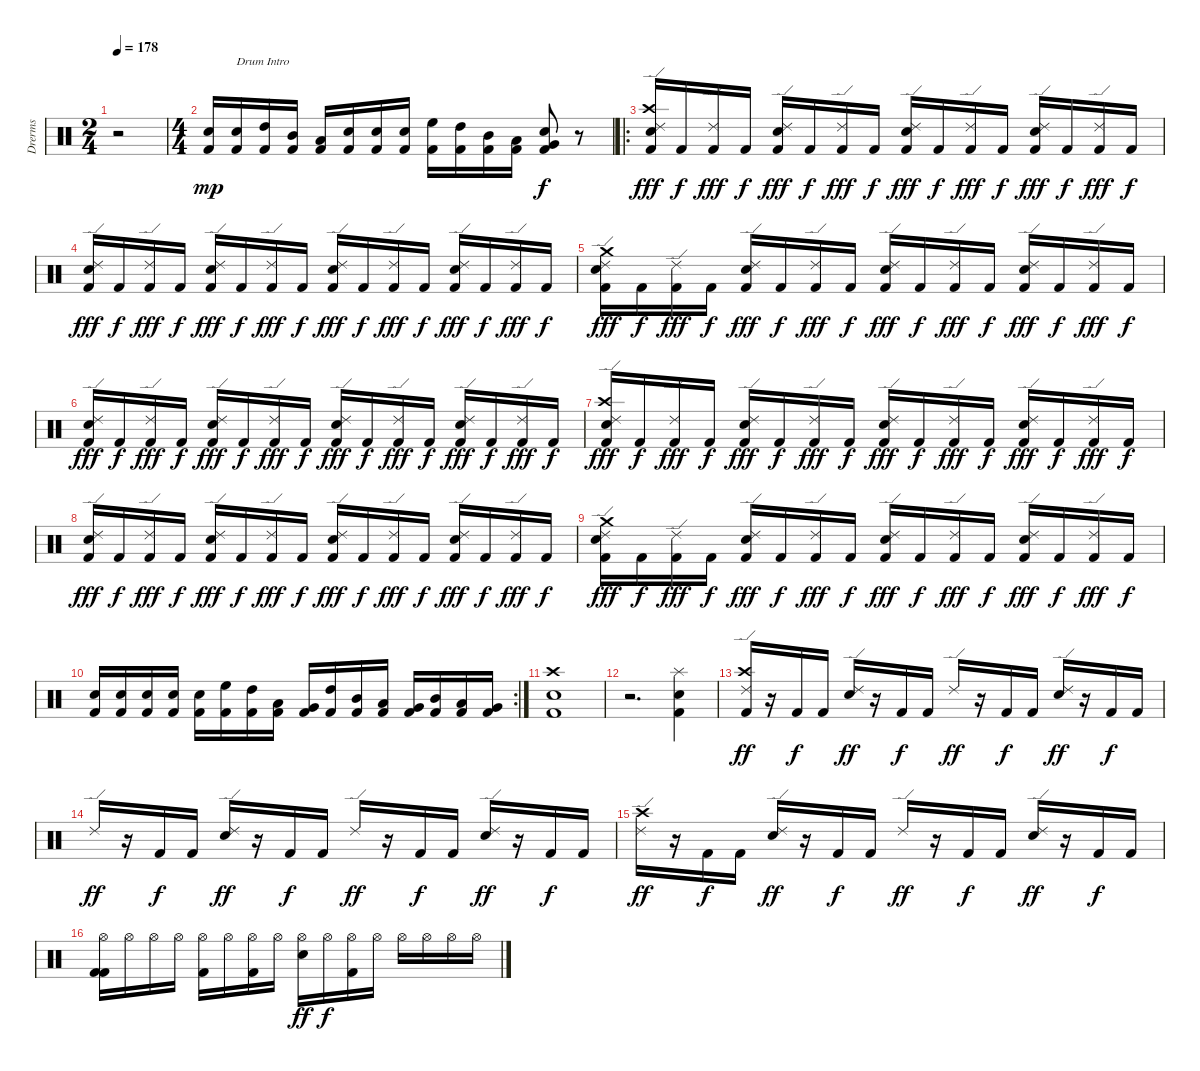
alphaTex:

\track ("Drerms" "Drerms") {instrument percussion}
\staff {score}
\articulation defaults
\ts (2 4)
\tempo 178
\clef neutral
\ks c
r.2{dy mp} |
\ts (4 4)
("Snare (hit) 2" "Kick (hit) 2").16 ("Snare (hit) 2" "Kick (hit) 2").16{txt "Drum Intro"} ("High Tom (hit)" "Kick (hit) 2").16 ("Mid Tom (hit)" "Kick (hit) 2").16 ("Low Tom (hit)" "Kick (hit) 2").16 ("Snare (hit) 2" "Kick (hit) 2").16 ("Snare (hit) 2" "Kick (hit) 2").16 ("Snare (hit) 2" "Kick (hit) 2").16 ("High Floor Tom (hit)" "Kick (hit) 2").16 ("High Tom (hit)" "Kick (hit) 2").16 ("Mid Tom (hit)" "Kick (hit) 2").16 ("Low Tom (hit)" "Kick (hit) 2").16 ("Snare (hit) 2" "Very Low Tom (hit)" "Kick (hit) 2").8{dy f} r.8 |
\ro
("Crash high (hit)" "Snare (hit) 2" "Ride (edge) 2" "Kick (hit) 2").16{dy fff} "Kick (hit) 2".16{dy f} ("Ride (edge) 2" "Kick (hit) 2").16{dy fff} "Kick (hit) 2".16{dy f} ("Snare (hit) 2" "Ride (edge) 2" "Kick (hit) 2").16{dy fff} "Kick (hit) 2".16{dy f} ("Ride (edge) 2" "Kick (hit) 2").16{dy fff} "Kick (hit) 2".16{dy f} ("Snare (hit) 2" "Ride (edge) 2" "Kick (hit) 2").16{dy fff} "Kick (hit) 2".16{dy f} ("Ride (edge) 2" "Kick (hit) 2").16{dy fff} "Kick (hit) 2".16{dy f} ("Snare (hit) 2" "Ride (edge) 2" "Kick (hit) 2").16{dy fff} "Kick (hit) 2".16{dy f} ("Ride (edge) 2" "Kick (hit) 2").16{dy fff} "Kick (hit) 2".16{dy f} |
("Snare (hit) 2" "Ride (edge) 2" "Kick (hit) 2").16{dy fff} "Kick (hit) 2".16{dy f} ("Ride (edge) 2" "Kick (hit) 2").16{dy fff} "Kick (hit) 2".16{dy f} ("Snare (hit) 2" "Ride (edge) 2" "Kick (hit) 2").16{dy fff} "Kick (hit) 2".16{dy f} ("Ride (edge) 2" "Kick (hit) 2").16{dy fff} "Kick (hit) 2".16{dy f} ("Snare (hit) 2" "Ride (edge) 2" "Kick (hit) 2").16{dy fff} "Kick (hit) 2".16{dy f} ("Ride (edge) 2" "Kick (hit) 2").16{dy fff} "Kick (hit) 2".16{dy f} ("Snare (hit) 2" "Ride (edge) 2" "Kick (hit) 2").16{dy fff} "Kick (hit) 2".16{dy f} ("Ride (edge) 2" "Kick (hit) 2").16{dy fff} "Kick (hit) 2".16{dy f} |
("Crash medium (hit)" "Snare (hit) 2" "Ride (edge) 2" "Kick (hit) 2").16{dy fff} "Kick (hit) 2".16{dy f} ("Ride (edge) 2" "Kick (hit) 2").16{dy fff} "Kick (hit) 2".16{dy f} ("Snare (hit) 2" "Ride (edge) 2" "Kick (hit) 2").16{dy fff} "Kick (hit) 2".16{dy f} ("Ride (edge) 2" "Kick (hit) 2").16{dy fff} "Kick (hit) 2".16{dy f} ("Snare (hit) 2" "Ride (edge) 2" "Kick (hit) 2").16{dy fff} "Kick (hit) 2".16{dy f} ("Ride (edge) 2" "Kick (hit) 2").16{dy fff} "Kick (hit) 2".16{dy f} ("Snare (hit) 2" "Ride (edge) 2" "Kick (hit) 2").16{dy fff} "Kick (hit) 2".16{dy f} ("Ride (edge) 2" "Kick (hit) 2").16{dy fff} "Kick (hit) 2".16{dy f} |
("Snare (hit) 2" "Ride (edge) 2" "Kick (hit) 2").16{dy fff} "Kick (hit) 2".16{dy f} ("Ride (edge) 2" "Kick (hit) 2").16{dy fff} "Kick (hit) 2".16{dy f} ("Snare (hit) 2" "Ride (edge) 2" "Kick (hit) 2").16{dy fff} "Kick (hit) 2".16{dy f} ("Ride (edge) 2" "Kick (hit) 2").16{dy fff} "Kick (hit) 2".16{dy f} ("Snare (hit) 2" "Ride (edge) 2" "Kick (hit) 2").16{dy fff} "Kick (hit) 2".16{dy f} ("Ride (edge) 2" "Kick (hit) 2").16{dy fff} "Kick (hit) 2".16{dy f} ("Snare (hit) 2" "Ride (edge) 2" "Kick (hit) 2").16{dy fff} "Kick (hit) 2".16{dy f} ("Ride (edge) 2" "Kick (hit) 2").16{dy fff} "Kick (hit) 2".16{dy f} |
("Crash high (hit)" "Snare (hit) 2" "Ride (edge) 2" "Kick (hit) 2").16{dy fff} "Kick (hit) 2".16{dy f} ("Ride (edge) 2" "Kick (hit) 2").16{dy fff} "Kick (hit) 2".16{dy f} ("Snare (hit) 2" "Ride (edge) 2" "Kick (hit) 2").16{dy fff} "Kick (hit) 2".16{dy f} ("Ride (edge) 2" "Kick (hit) 2").16{dy fff} "Kick (hit) 2".16{dy f} ("Snare (hit) 2" "Ride (edge) 2" "Kick (hit) 2").16{dy fff} "Kick (hit) 2".16{dy f} ("Ride (edge) 2" "Kick (hit) 2").16{dy fff} "Kick (hit) 2".16{dy f} ("Snare (hit) 2" "Ride (edge) 2" "Kick (hit) 2").16{dy fff} "Kick (hit) 2".16{dy f} ("Ride (edge) 2" "Kick (hit) 2").16{dy fff} "Kick (hit) 2".16{dy f} |
("Snare (hit) 2" "Ride (edge) 2" "Kick (hit) 2").16{dy fff} "Kick (hit) 2".16{dy f} ("Ride (edge) 2" "Kick (hit) 2").16{dy fff} "Kick (hit) 2".16{dy f} ("Snare (hit) 2" "Ride (edge) 2" "Kick (hit) 2").16{dy fff} "Kick (hit) 2".16{dy f} ("Ride (edge) 2" "Kick (hit) 2").16{dy fff} "Kick (hit) 2".16{dy f} ("Snare (hit) 2" "Ride (edge) 2" "Kick (hit) 2").16{dy fff} "Kick (hit) 2".16{dy f} ("Ride (edge) 2" "Kick (hit) 2").16{dy fff} "Kick (hit) 2".16{dy f} ("Snare (hit) 2" "Ride (edge) 2" "Kick (hit) 2").16{dy fff} "Kick (hit) 2".16{dy f} ("Ride (edge) 2" "Kick (hit) 2").16{dy fff} "Kick (hit) 2".16{dy f} |
("Crash medium (hit)" "Snare (hit) 2" "Ride (edge) 2" "Kick (hit) 2").16{dy fff} "Kick (hit) 2".16{dy f} ("Ride (edge) 2" "Kick (hit) 2").16{dy fff} "Kick (hit) 2".16{dy f} ("Snare (hit) 2" "Ride (edge) 2" "Kick (hit) 2").16{dy fff} "Kick (hit) 2".16{dy f} ("Ride (edge) 2" "Kick (hit) 2").16{dy fff} "Kick (hit) 2".16{dy f} ("Snare (hit) 2" "Ride (edge) 2" "Kick (hit) 2").16{dy fff} "Kick (hit) 2".16{dy f} ("Ride (edge) 2" "Kick (hit) 2").16{dy fff} "Kick (hit) 2".16{dy f} ("Snare (hit) 2" "Ride (edge) 2" "Kick (hit) 2").16{dy fff} "Kick (hit) 2".16{dy f} ("Ride (edge) 2" "Kick (hit) 2").16{dy fff} "Kick (hit) 2".16{dy f} |
\rc 2
("Snare (hit) 2" "Kick (hit) 2").16 ("Snare (hit) 2" "Kick (hit) 2").16 ("Snare (hit) 2" "Kick (hit) 2").16 ("Snare (hit) 2" "Kick (hit) 2").16 ("Snare (hit) 2" "Kick (hit) 2").16 ("High Floor Tom (hit)" "Kick (hit) 2").16 ("High Tom (hit)" "Kick (hit) 2").16 ("Low Tom (hit)" "Kick (hit) 2").16 ("Very Low Tom (hit)" "Kick (hit) 2").16 ("High Tom (hit)" "Kick (hit) 2").16 ("Mid Tom (hit)" "Kick (hit) 2").16 ("Low Tom (hit)" "Kick (hit) 2").16 ("Very Low Tom (hit)" "Kick (hit) 2").16 ("Mid Tom (hit)" "Kick (hit) 2").16 ("Low Tom (hit)" "Kick (hit) 2").16 ("Very Low Tom (hit)" "Kick (hit) 2").16 |
("Crash high (hit)" "Snare (hit) 2" "Kick (hit) 2").1 |
r.2{d} ("Splash (hit)" "Snare (hit) 2" "Kick (hit) 2").4 |
("Crash high (hit)" "Ride (edge) 2" "Kick (hit) 2").16{dy ff} r.16 "Kick (hit) 2".16{dy f} "Kick (hit) 2".16 ("Snare (hit) 2" "Ride (edge) 2").16{dy ff} r.16 "Kick (hit) 2".16{dy f} "Kick (hit) 2".16 "Ride (edge) 2".16{dy ff} r.16 "Kick (hit) 2".16{dy f} "Kick (hit) 2".16 ("Snare (hit) 2" "Ride (edge) 2").16{dy ff} r.16 "Kick (hit) 2".16{dy f} "Kick (hit) 2".16 |
"Ride (edge) 2".16{dy ff} r.16 "Kick (hit) 2".16{dy f} "Kick (hit) 2".16 ("Snare (hit) 2" "Ride (edge) 2").16{dy ff} r.16 "Kick (hit) 2".16{dy f} "Kick (hit) 2".16 "Ride (edge) 2".16{dy ff} r.16 "Kick (hit) 2".16{dy f} "Kick (hit) 2".16 ("Snare (hit) 2" "Ride (edge) 2").16{dy ff} r.16 "Kick (hit) 2".16{dy f} "Kick (hit) 2".16 |
("Crash high (hit)" "Ride (edge) 2").16{dy ff} r.16 "Kick (hit) 2".16{dy f} "Kick (hit) 2".16 ("Snare (hit) 2" "Ride (edge) 2").16{dy ff} r.16 "Kick (hit) 2".16{dy f} "Kick (hit) 2".16 "Ride (edge) 2".16{dy ff} r.16 "Kick (hit) 2".16{dy f} "Kick (hit) 2".16 ("Snare (hit) 2" "Ride (edge) 2").16{dy ff} r.16 "Kick (hit) 2".16{dy f} "Kick (hit) 2".16 |
("Hi-Hat (open)" "Kick (hit) 2" "Kick (hit) 2").16 "Hi-Hat (open)".16 "Hi-Hat (open)".16 "Hi-Hat (open)".16 ("Hi-Hat (open)" "Kick (hit) 2").16 "Hi-Hat (open)".16 ("Hi-Hat (open)" "Kick (hit) 2").16 "Hi-Hat (open)".16 ("Snare (hit) 2" "Hi-Hat (open)").16{dy ff} "Hi-Hat (open)".16{dy f} ("Hi-Hat (open)" "Kick (hit) 2").16 "Hi-Hat (open)".16 "Hi-Hat (open)".16 "Hi-Hat (open)".16 "Hi-Hat (open)".16 "Hi-Hat (open)".16
